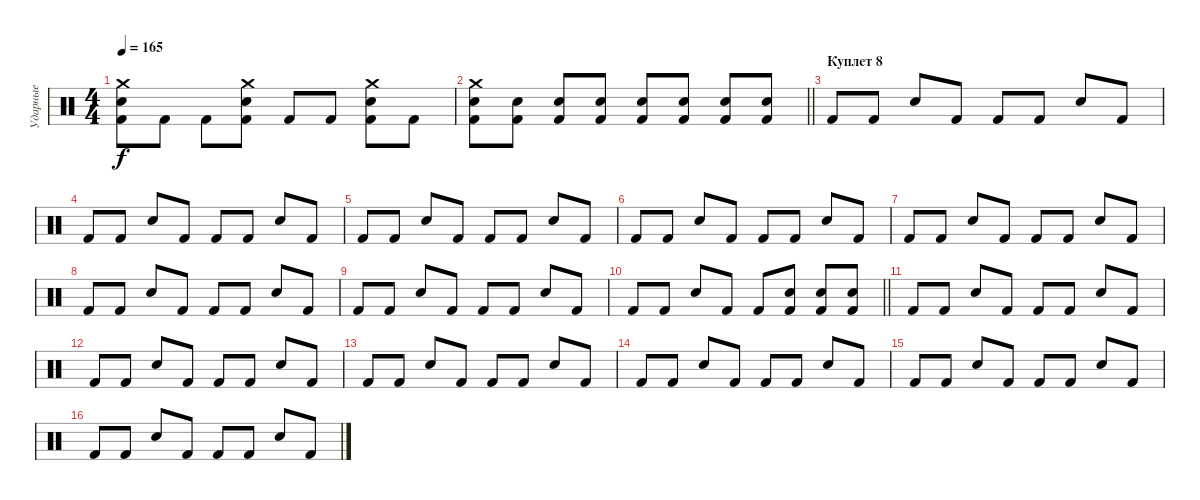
\track ("Ударные" "Ударные") {instrument percussion}
\staff {score}
\articulation defaults
\ts (4 4)
\tempo 165
\clef neutral
\ks c
("Snare (hit) 2" "Kick (hit) 2" "Crash medium (hit)").8{dy f} "Kick (hit) 2".8 "Kick (hit) 2".8 ("Snare (hit) 2" "Kick (hit) 2" "Crash medium (hit)").8 "Kick (hit) 2".8 "Kick (hit) 2".8 ("Snare (hit) 2" "Kick (hit) 2" "Crash medium (hit)").8 "Kick (hit) 2".8 |
\barLineRight lightlight
("Snare (hit) 2" "Kick (hit) 2" "Crash medium (hit)").8 ("Snare (hit) 2" "Kick (hit) 2").8 ("Snare (hit) 2" "Kick (hit) 2").8 ("Snare (hit) 2" "Kick (hit) 2").8 ("Snare (hit) 2" "Kick (hit) 2").8 ("Snare (hit) 2" "Kick (hit) 2").8 ("Snare (hit) 2" "Kick (hit) 2").8 ("Snare (hit) 2" "Kick (hit) 2").8 |
\section ("" "Куплет 8")
"Kick (hit) 2".8 "Kick (hit) 2".8 "Snare (hit) 2".8 "Kick (hit) 2".8 "Kick (hit) 2".8 "Kick (hit) 2".8 "Snare (hit) 2".8 "Kick (hit) 2".8 |
"Kick (hit) 2".8 "Kick (hit) 2".8 "Snare (hit) 2".8 "Kick (hit) 2".8 "Kick (hit) 2".8 "Kick (hit) 2".8 "Snare (hit) 2".8 "Kick (hit) 2".8 |
"Kick (hit) 2".8 "Kick (hit) 2".8 "Snare (hit) 2".8 "Kick (hit) 2".8 "Kick (hit) 2".8 "Kick (hit) 2".8 "Snare (hit) 2".8 "Kick (hit) 2".8 |
"Kick (hit) 2".8 "Kick (hit) 2".8 "Snare (hit) 2".8 "Kick (hit) 2".8 "Kick (hit) 2".8 "Kick (hit) 2".8 "Snare (hit) 2".8 "Kick (hit) 2".8 |
"Kick (hit) 2".8 "Kick (hit) 2".8 "Snare (hit) 2".8 "Kick (hit) 2".8 "Kick (hit) 2".8 "Kick (hit) 2".8 "Snare (hit) 2".8 "Kick (hit) 2".8 |
"Kick (hit) 2".8 "Kick (hit) 2".8 "Snare (hit) 2".8 "Kick (hit) 2".8 "Kick (hit) 2".8 "Kick (hit) 2".8 "Snare (hit) 2".8 "Kick (hit) 2".8 |
"Kick (hit) 2".8 "Kick (hit) 2".8 "Snare (hit) 2".8 "Kick (hit) 2".8 "Kick (hit) 2".8 "Kick (hit) 2".8 "Snare (hit) 2".8 "Kick (hit) 2".8 |
\barLineRight lightlight "Kick (hit) 2".8 "Kick (hit) 2".8 "Snare (hit) 2".8 "Kick (hit) 2".8 "Kick (hit) 2".8
("Kick (hit) 2" "Snare (hit) 2").8 ("Kick (hit) 2" "Snare (hit) 2").8 ("Kick (hit) 2" "Snare (hit) 2").8 |
"Kick (hit) 2".8 "Kick (hit) 2".8 "Snare (hit) 2".8 "Kick (hit) 2".8 "Kick (hit) 2".8 "Kick (hit) 2".8 "Snare (hit) 2".8 "Kick (hit) 2".8 |
"Kick (hit) 2".8 "Kick (hit) 2".8 "Snare (hit) 2".8 "Kick (hit) 2".8 "Kick (hit) 2".8 "Kick (hit) 2".8 "Snare (hit) 2".8 "Kick (hit) 2".8 |
"Kick (hit) 2".8 "Kick (hit) 2".8 "Snare (hit) 2".8 "Kick (hit) 2".8 "Kick (hit) 2".8 "Kick (hit) 2".8 "Snare (hit) 2".8 "Kick (hit) 2".8 |
"Kick (hit) 2".8 "Kick (hit) 2".8 "Snare (hit) 2".8 "Kick (hit) 2".8 "Kick (hit) 2".8 "Kick (hit) 2".8 "Snare (hit) 2".8 "Kick (hit) 2".8 |
"Kick (hit) 2".8 "Kick (hit) 2".8 "Snare (hit) 2".8 "Kick (hit) 2".8 "Kick (hit) 2".8 "Kick (hit) 2".8 "Snare (hit) 2".8 "Kick (hit) 2".8 |
"Kick (hit) 2".8 "Kick (hit) 2".8 "Snare (hit) 2".8 "Kick (hit) 2".8 "Kick (hit) 2".8 "Kick (hit) 2".8 "Snare (hit) 2".8 "Kick (hit) 2".8
